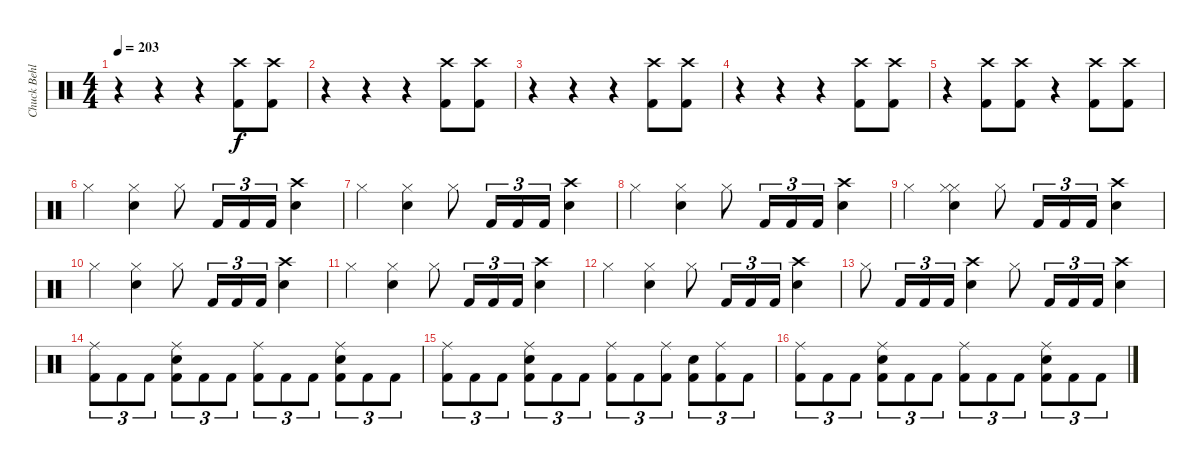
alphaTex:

\track ("Chuck Behler" "Chuck Behl") {instrument percussion}
\staff {score}
\articulation defaults
\ts (4 4)
\tempo 203
\clef neutral
\ks c
r.4{dy f} r.4 r.4 ("Crash high (hit)" "Kick (hit) 2").8 ("Crash high (hit)" "Kick (hit) 2").8 |
r.4 r.4 r.4 ("Crash high (hit)" "Kick (hit) 2").8 ("Crash high (hit)" "Kick (hit) 2").8 |
r.4 r.4 r.4 ("Crash high (hit)" "Kick (hit) 2").8 ("Crash high (hit)" "Kick (hit) 2").8 |
r.4 r.4 r.4 ("Crash high (hit)" "Kick (hit) 2").8 ("Crash high (hit)" "Kick (hit) 2").8 |
r.4 ("Crash high (hit)" "Kick (hit) 2").8 ("Crash high (hit)" "Kick (hit) 2").8 r.4 ("Crash high (hit)" "Kick (hit) 2").8 ("Crash high (hit)" "Kick (hit) 2").8 |
"Hi-Hat (closed)".4 ("Hi-Hat (closed)" "Snare (hit) 2").4 "Hi-Hat (closed)".8 "Kick (hit) 2".16{tu (3 2)} "Kick (hit) 2".16{tu (3 2)} "Kick (hit) 2".16{tu (3 2)} ("Crash high (hit)" "Snare (hit) 2").4 |
"Hi-Hat (closed)".4 ("Hi-Hat (closed)" "Snare (hit) 2").4 "Hi-Hat (closed)".8 "Kick (hit) 2".16{tu (3 2)} "Kick (hit) 2".16{tu (3 2)} "Kick (hit) 2".16{tu (3 2)} ("Crash high (hit)" "Snare (hit) 2").4 |
"Hi-Hat (closed)".4 ("Hi-Hat (closed)" "Snare (hit) 2").4 "Hi-Hat (closed)".8 "Kick (hit) 2".16{tu (3 2)} "Kick (hit) 2".16{tu (3 2)} "Kick (hit) 2".16{tu (3 2)} ("Crash high (hit)" "Snare (hit) 2").4 |
"Hi-Hat (closed)".4 ("Hi-Hat (closed)" "Hi-Hat (closed)" "Snare (hit) 2").4 "Hi-Hat (closed)".8 "Kick (hit) 2".16{tu (3 2)} "Kick (hit) 2".16{tu (3 2)} "Kick (hit) 2".16{tu (3 2)} ("Crash high (hit)" "Snare (hit) 2").4 |
"Hi-Hat (closed)".4 ("Hi-Hat (closed)" "Snare (hit) 2").4 "Hi-Hat (closed)".8 "Kick (hit) 2".16{tu (3 2)} "Kick (hit) 2".16{tu (3 2)} "Kick (hit) 2".16{tu (3 2)} ("Crash high (hit)" "Snare (hit) 2").4 |
"Hi-Hat (closed)".4 ("Hi-Hat (closed)" "Snare (hit) 2").4 "Hi-Hat (closed)".8 "Kick (hit) 2".16{tu (3 2)} "Kick (hit) 2".16{tu (3 2)} "Kick (hit) 2".16{tu (3 2)} ("Crash high (hit)" "Snare (hit) 2").4 |
"Hi-Hat (closed)".4 ("Hi-Hat (closed)" "Snare (hit) 2").4 "Hi-Hat (closed)".8 "Kick (hit) 2".16{tu (3 2)} "Kick (hit) 2".16{tu (3 2)} "Kick (hit) 2".16{tu (3 2)} ("Crash high (hit)" "Snare (hit) 2").4 |
"Hi-Hat (closed)".8 "Kick (hit) 2".16{tu (3 2)} "Kick (hit) 2".16{tu (3 2)} "Kick (hit) 2".16{tu (3 2)} ("Crash high (hit)" "Snare (hit) 2").4 "Hi-Hat (closed)".8 "Kick (hit) 2".16{tu (3 2)} "Kick (hit) 2".16{tu (3 2)} "Kick (hit) 2".16{tu (3 2)} ("Crash high (hit)" "Snare (hit) 2").4 |
("Ride (middle)" "Kick (hit) 2").8{tu (3 2)} "Kick (hit) 2".8{tu (3 2)} "Kick (hit) 2".8{tu (3 2)} ("Ride (middle)" "Snare (hit) 2" "Kick (hit) 2").8{tu (3 2)} "Kick (hit) 2".8{tu (3 2)} "Kick (hit) 2".8{tu (3 2)} ("Ride (middle)" "Kick (hit) 2").8{tu (3 2)} "Kick (hit) 2".8{tu (3 2)} "Kick (hit) 2".8{tu (3 2)} ("Ride (middle)" "Snare (hit) 2" "Kick (hit) 2").8{tu (3 2)} "Kick (hit) 2".8{tu (3 2)} "Kick (hit) 2".8{tu (3 2)} |
("Ride (middle)" "Kick (hit) 2").8{tu (3 2)} "Kick (hit) 2".8{tu (3 2)} "Kick (hit) 2".8{tu (3 2)} ("Ride (middle)" "Snare (hit) 2" "Kick (hit) 2").8{tu (3 2)} "Kick (hit) 2".8{tu (3 2)} "Kick (hit) 2".8{tu (3 2)} ("Ride (middle)" "Kick (hit) 2").8{tu (3 2)} "Kick (hit) 2".8{tu (3 2)} ("Ride (middle)" "Kick (hit) 2").8{tu (3 2)} ("Snare (hit) 2" "Kick (hit) 2").8{tu (3 2)} ("Ride (middle)" "Kick (hit) 2").8{tu (3 2)} "Kick (hit) 2".8{tu (3 2)} |
("Ride (middle)" "Kick (hit) 2").8{tu (3 2)} "Kick (hit) 2".8{tu (3 2)} "Kick (hit) 2".8{tu (3 2)} ("Ride (middle)" "Snare (hit) 2" "Kick (hit) 2").8{tu (3 2)} "Kick (hit) 2".8{tu (3 2)} "Kick (hit) 2".8{tu (3 2)} ("Ride (middle)" "Kick (hit) 2").8{tu (3 2)} "Kick (hit) 2".8{tu (3 2)} "Kick (hit) 2".8{tu (3 2)} ("Ride (middle)" "Snare (hit) 2" "Kick (hit) 2").8{tu (3 2)} "Kick (hit) 2".8{tu (3 2)} "Kick (hit) 2".8{tu (3 2)}
